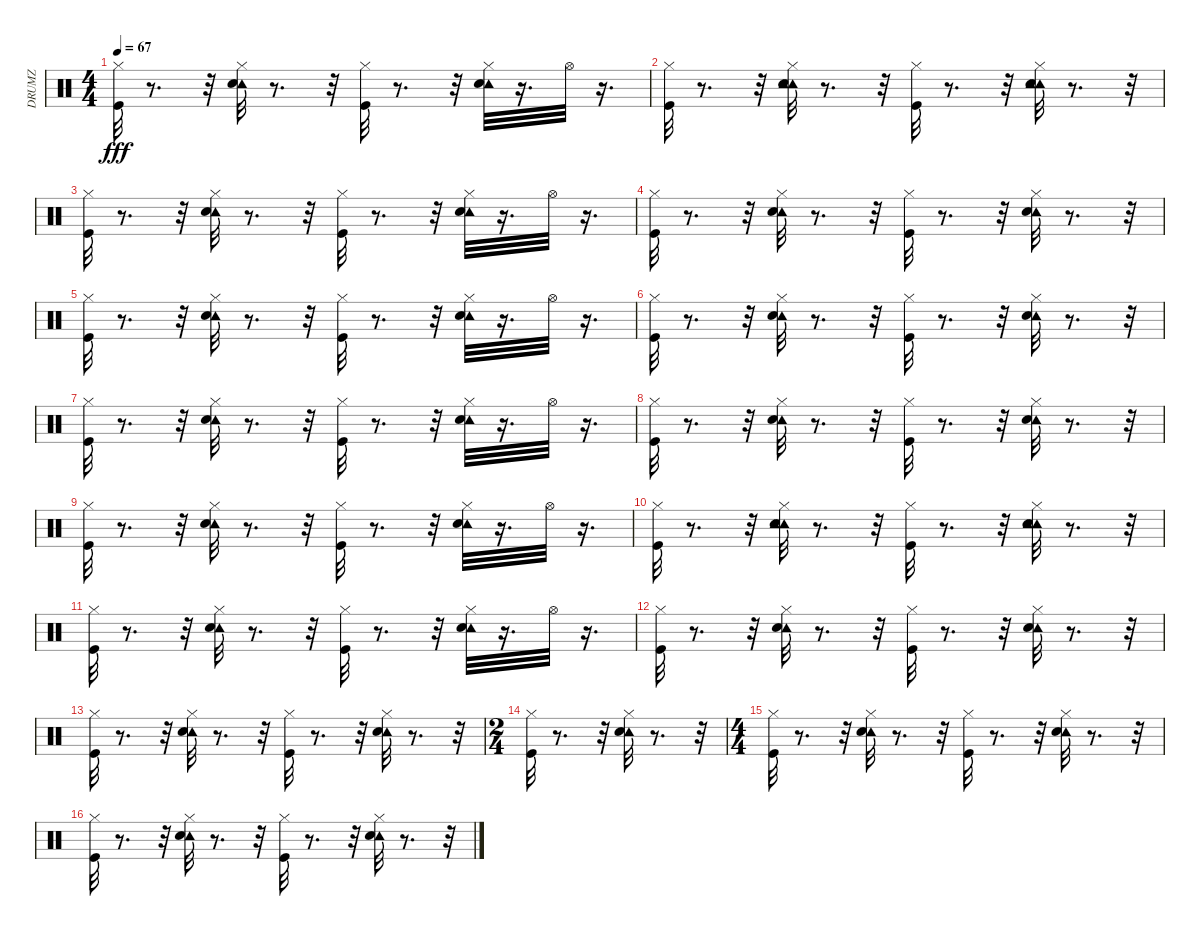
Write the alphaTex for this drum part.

\track ("DRUMZ" "DRUMZ") {instrument percussion}
\staff {score}
\articulation defaults
\ts (4 4)
\tempo 67
\clef neutral
\ks c
("Hi-Hat (closed)" "Kick (hit)").32{dy fff} r.8{d} r.32 ("Tambourine (hit)" "Snare (hit) 2" "Hi-Hat (closed)").32 r.8{d} r.32 ("Hi-Hat (closed)" "Kick (hit)").32 r.8{d} r.32 ("Tambourine (hit)" "Hi-Hat (closed)" "Snare (hit) 2").32 r.16{d} "Hi-Hat (open)".32 r.16{d} |
("Kick (hit)" "Hi-Hat (closed)").32 r.8{d} r.32 ("Tambourine (hit)" "Tambourine (hit)" "Hi-Hat (closed)" "Snare (hit) 2").32 r.8{d} r.32 ("Hi-Hat (closed)" "Kick (hit)").32 r.8{d} r.32 ("Tambourine (hit)" "Tambourine (hit)" "Hi-Hat (closed)" "Snare (hit) 2").32 r.8{d} r.32 |
("Kick (hit)" "Hi-Hat (closed)").32 r.8{d} r.32 ("Tambourine (hit)" "Hi-Hat (closed)" "Snare (hit) 2").32 r.8{d} r.32 ("Hi-Hat (closed)" "Kick (hit)").32 r.8{d} r.32 ("Tambourine (hit)" "Hi-Hat (closed)" "Snare (hit) 2").32 r.16{d} "Hi-Hat (open)".32 r.16{d} |
("Hi-Hat (closed)" "Kick (hit)").32 r.8{d} r.32 ("Tambourine (hit)" "Snare (hit) 2" "Hi-Hat (closed)").32 r.8{d} r.32 ("Hi-Hat (closed)" "Kick (hit)").32 r.8{d} r.32 ("Tambourine (hit)" "Hi-Hat (closed)" "Snare (hit) 2").32 r.8{d} r.32 |
("Kick (hit)" "Hi-Hat (closed)").32 r.8{d} r.32 ("Tambourine (hit)" "Hi-Hat (closed)" "Snare (hit) 2").32 r.8{d} r.32 ("Hi-Hat (closed)" "Kick (hit)").32 r.8{d} r.32 ("Tambourine (hit)" "Hi-Hat (closed)" "Snare (hit) 2").32 r.16{d} "Hi-Hat (open)".32 r.16{d} |
("Hi-Hat (closed)" "Kick (hit)").32 r.8{d} r.32 ("Tambourine (hit)" "Hi-Hat (closed)" "Snare (hit) 2").32 r.8{d} r.32 ("Hi-Hat (closed)" "Kick (hit)").32 r.8{d} r.32 ("Tambourine (hit)" "Hi-Hat (closed)" "Snare (hit) 2").32 r.8{d} r.32 |
("Hi-Hat (closed)" "Kick (hit)").32 r.8{d} r.32 ("Tambourine (hit)" "Hi-Hat (closed)" "Snare (hit) 2").32 r.8{d} r.32 ("Hi-Hat (closed)" "Kick (hit)").32 r.8{d} r.32 ("Tambourine (hit)" "Hi-Hat (closed)" "Snare (hit) 2").32 r.16{d} "Hi-Hat (open)".32 r.16{d} |
("Hi-Hat (closed)" "Kick (hit)").32 r.8{d} r.32 ("Tambourine (hit)" "Hi-Hat (closed)" "Snare (hit) 2").32 r.8{d} r.32 ("Hi-Hat (closed)" "Kick (hit)").32 r.8{d} r.32 ("Tambourine (hit)" "Hi-Hat (closed)" "Snare (hit) 2").32 r.8{d} r.32 |
("Hi-Hat (closed)" "Kick (hit)").32 r.8{d} r.32 ("Tambourine (hit)" "Hi-Hat (closed)" "Snare (hit) 2").32 r.8{d} r.32 ("Hi-Hat (closed)" "Kick (hit)").32 r.8{d} r.32 ("Tambourine (hit)" "Hi-Hat (closed)" "Snare (hit) 2").32 r.16{d} "Hi-Hat (open)".32 r.16{d} |
("Hi-Hat (closed)" "Kick (hit)").32 r.8{d} r.32 ("Tambourine (hit)" "Tambourine (hit)" "Hi-Hat (closed)" "Snare (hit) 2").32 r.8{d} r.32 ("Hi-Hat (closed)" "Kick (hit)").32 r.8{d} r.32 ("Tambourine (hit)" "Tambourine (hit)" "Hi-Hat (closed)" "Snare (hit) 2").32 r.8{d} r.32 |
("Hi-Hat (closed)" "Kick (hit)").32 r.8{d} r.32 ("Tambourine (hit)" "Hi-Hat (closed)" "Snare (hit) 2").32 r.8{d} r.32 ("Hi-Hat (closed)" "Kick (hit)").32 r.8{d} r.32 ("Tambourine (hit)" "Hi-Hat (closed)" "Snare (hit) 2").32 r.16{d} "Hi-Hat (open)".32 r.16{d} |
("Kick (hit)" "Hi-Hat (closed)").32 r.8{d} r.32 ("Tambourine (hit)" "Hi-Hat (closed)" "Snare (hit) 2").32 r.8{d} r.32 ("Hi-Hat (closed)" "Kick (hit)").32 r.8{d} r.32 ("Tambourine (hit)" "Hi-Hat (closed)" "Snare (hit) 2").32 r.8{d} r.32 |
("Hi-Hat (closed)" "Kick (hit)").32 r.8{d} r.32 ("Tambourine (hit)" "Snare (hit) 2" "Hi-Hat (closed)").32 r.8{d} r.32 ("Hi-Hat (closed)" "Kick (hit)").32 r.8{d} r.32 ("Tambourine (hit)" "Hi-Hat (closed)" "Snare (hit) 2").32 r.8{d} r.32 |
\ts (2 4)
("Kick (hit)" "Hi-Hat (closed)").32 r.8{d} r.32 ("Tambourine (hit)" "Hi-Hat (closed)" "Snare (hit) 2").32 r.8{d} r.32 |
\ts (4 4)
("Kick (hit)" "Hi-Hat (closed)").32 r.8{d} r.32 ("Tambourine (hit)" "Hi-Hat (closed)" "Snare (hit) 2").32 r.8{d} r.32 ("Hi-Hat (closed)" "Kick (hit)").32 r.8{d} r.32 ("Tambourine (hit)" "Hi-Hat (closed)" "Snare (hit) 2").32 r.8{d} r.32 |
("Hi-Hat (closed)" "Kick (hit)").32 r.8{d} r.32 ("Tambourine (hit)" "Hi-Hat (closed)" "Snare (hit) 2").32 r.8{d} r.32 ("Hi-Hat (closed)" "Kick (hit)").32 r.8{d} r.32 ("Tambourine (hit)" "Hi-Hat (closed)" "Snare (hit) 2").32 r.8{d} r.32
